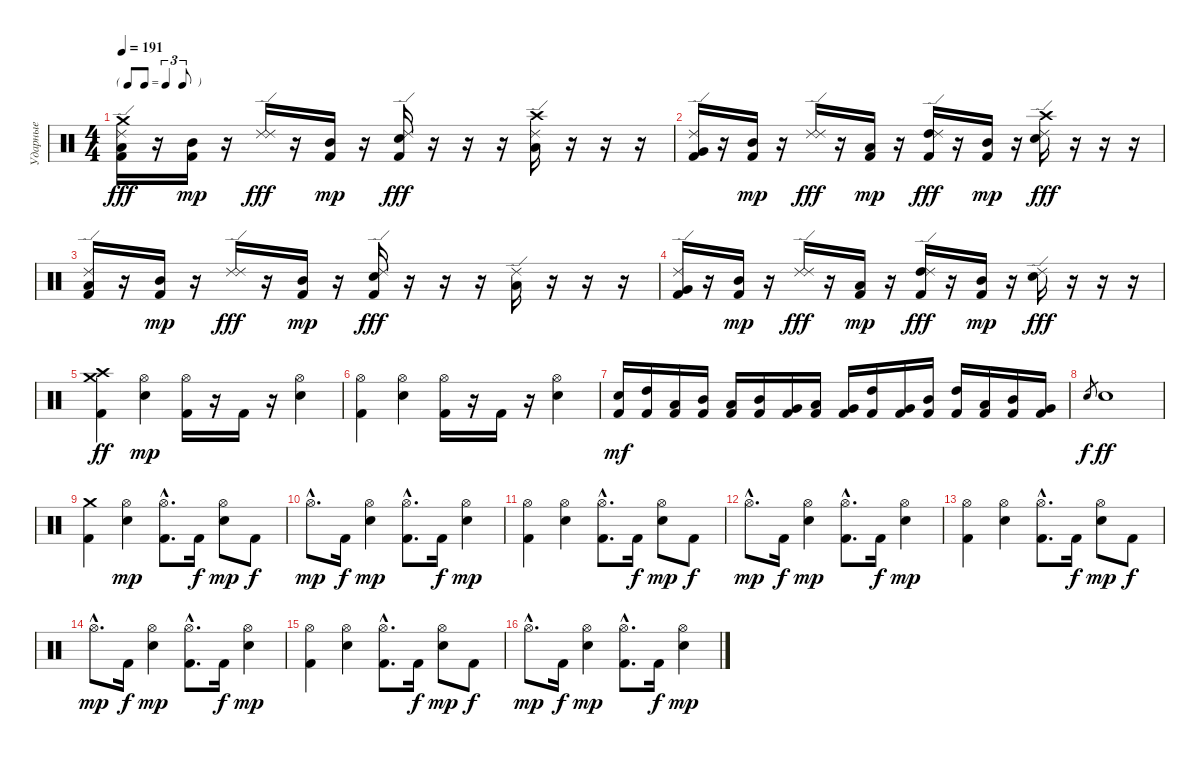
\track ("Ударные" "Ударные") {instrument percussion}
\staff {score}
\articulation defaults
\ts (4 4)
\tf triplet8th
\tempo 191
\clef neutral
\ks c
("Crash medium (hit)" "Low Tom (hit)" "Kick (hit) 2" "Ride (edge) 2").16{dy fff} r.16 ("Mid Tom (hit)" "Kick (hit) 2").16{dy mp} r.16 ("Ride (edge) 2" "Ride (edge) 2").16{dy fff} r.16 ("Mid Tom (hit)" "Kick (hit) 2").16{dy mp} r.16 ("Snare (hit) 2" "Kick (hit) 2" "Ride (edge) 2").16{dy fff} r.16 r.16 r.16 ("Crash high (hit)" "Low Tom (hit)" "Ride (edge) 2").16 r.16 r.16 r.16 |
("Very Low Tom (hit)" "Kick (hit) 2" "Ride (edge) 2").16 r.16 ("Mid Tom (hit)" "Kick (hit) 2").16{dy mp} r.16 ("Ride (edge) 2" "Ride (edge) 2").16{dy fff} r.16 ("Low Tom (hit)" "Kick (hit) 2").16{dy mp} r.16 ("High Tom (hit)" "Kick (hit) 2" "Ride (edge) 2").16{dy fff} r.16 ("Mid Tom (hit)" "Kick (hit) 2").16{dy mp} r.16 ("Crash high (hit)" "Snare (hit) 2" "Ride (edge) 2").16{dy fff} r.16 r.16 r.16 |
("Low Tom (hit)" "Kick (hit) 2" "Ride (edge) 2").16 r.16 ("Mid Tom (hit)" "Kick (hit) 2").16{dy mp} r.16 ("Ride (edge) 2" "Ride (edge) 2").16{dy fff} r.16 ("Mid Tom (hit)" "Kick (hit) 2").16{dy mp} r.16 ("Snare (hit) 2" "Kick (hit) 2" "Ride (edge) 2").16{dy fff} r.16 r.16 r.16 ("Low Tom (hit)" "Ride (edge) 2").16 r.16 r.16 r.16 |
("Very Low Tom (hit)" "Kick (hit) 2" "Ride (edge) 2").16 r.16 ("Mid Tom (hit)" "Kick (hit) 2").16{dy mp} r.16 ("Ride (edge) 2" "Ride (edge) 2").16{dy fff} r.16 ("Low Tom (hit)" "Kick (hit) 2").16{dy mp} r.16 ("High Tom (hit)" "Kick (hit) 2" "Ride (edge) 2").16{dy fff} r.16 ("Mid Tom (hit)" "Kick (hit) 2").16{dy mp} r.16 ("Snare (hit) 2" "Ride (edge) 2").16{dy fff} r.16 r.16 r.16 |
("Crash medium (hit)" "Kick (hit) 2" "Crash high (hit)").4{dy ff} ("Snare (hit) 2" "Hi-Hat (open)").4{dy mp} ("Kick (hit) 2" "Hi-Hat (open)").16 r.16 "Kick (hit) 2".16 r.16 ("Snare (hit) 2" "Hi-Hat (open)").4 |
("Kick (hit) 2" "Hi-Hat (open)").4 ("Snare (hit) 2" "Hi-Hat (open)").4 ("Kick (hit) 2" "Hi-Hat (open)").16 r.16 "Kick (hit) 2".16 r.16 ("Snare (hit) 2" "Hi-Hat (open)").4 |
("Electric Snare (hit)" "Kick (hit) 2").16{dy mf} ("High Tom (hit)" "Kick (hit) 2").16 ("Low Tom (hit)" "Kick (hit) 2").16 ("Mid Tom (hit)" "Kick (hit) 2").16 ("Low Tom (hit)" "Kick (hit) 2").16 ("Mid Tom (hit)" "Kick (hit) 2").16 ("Very Low Tom (hit)" "Kick (hit) 2").16 ("Low Tom (hit)" "Kick (hit) 2").16 ("Very Low Tom (hit)" "Kick (hit) 2").16 ("High Tom (hit)" "Kick (hit) 2").16 ("Very Low Tom (hit)" "Kick (hit) 2").16 ("Mid Tom (hit)" "Kick (hit) 2").16 ("High Tom (hit)" "Kick (hit) 2").16 ("Low Tom (hit)" "Kick (hit) 2").16 ("Mid Tom (hit)" "Kick (hit) 2").16 ("Very Low Tom (hit)" "Kick (hit) 2").16 |
"Electric Snare (hit)".8{gr dy f} "Electric Snare (hit)".1{dy ff} |
("Crash medium (hit)" "Kick (hit) 2").4 ("Snare (hit) 2" "Hi-Hat (open)").4{dy mp} ("Kick (hit) 2"{hac} "Hi-Hat (open)"{hac}).8{d} "Kick (hit) 2".16{dy f} ("Snare (hit) 2" "Hi-Hat (open)").8{dy mp} "Kick (hit) 2".8{dy f} |
"Hi-Hat (open)"{hac}.8{d dy mp} "Kick (hit) 2".16{dy f} ("Snare (hit) 2" "Hi-Hat (open)").4{dy mp} ("Kick (hit) 2"{hac} "Hi-Hat (open)"{hac}).8{d} "Kick (hit) 2".16{dy f} ("Snare (hit) 2" "Hi-Hat (open)").4{dy mp} |
("Kick (hit) 2" "Hi-Hat (open)").4 ("Snare (hit) 2" "Hi-Hat (open)").4 ("Kick (hit) 2"{hac} "Hi-Hat (open)"{hac}).8{d} "Kick (hit) 2".16{dy f} ("Snare (hit) 2" "Hi-Hat (open)").8{dy mp} "Kick (hit) 2".8{dy f} |
"Hi-Hat (open)"{hac}.8{d dy mp} "Kick (hit) 2".16{dy f} ("Snare (hit) 2" "Hi-Hat (open)").4{dy mp} ("Kick (hit) 2"{hac} "Hi-Hat (open)"{hac}).8{d} "Kick (hit) 2".16{dy f} ("Snare (hit) 2" "Hi-Hat (open)").4{dy mp} |
("Kick (hit) 2" "Hi-Hat (open)").4 ("Snare (hit) 2" "Hi-Hat (open)").4 ("Kick (hit) 2"{hac} "Hi-Hat (open)"{hac}).8{d} "Kick (hit) 2".16{dy f} ("Snare (hit) 2" "Hi-Hat (open)").8{dy mp} "Kick (hit) 2".8{dy f} |
"Hi-Hat (open)"{hac}.8{d dy mp} "Kick (hit) 2".16{dy f} ("Snare (hit) 2" "Hi-Hat (open)").4{dy mp} ("Kick (hit) 2"{hac} "Hi-Hat (open)"{hac}).8{d} "Kick (hit) 2".16{dy f} ("Snare (hit) 2" "Hi-Hat (open)").4{dy mp} |
("Kick (hit) 2" "Hi-Hat (open)").4 ("Snare (hit) 2" "Hi-Hat (open)").4 ("Kick (hit) 2"{hac} "Hi-Hat (open)"{hac}).8{d} "Kick (hit) 2".16{dy f} ("Snare (hit) 2" "Hi-Hat (open)").8{dy mp} "Kick (hit) 2".8{dy f} |
"Hi-Hat (open)"{hac}.8{d dy mp} "Kick (hit) 2".16{dy f} ("Snare (hit) 2" "Hi-Hat (open)").4{dy mp} ("Kick (hit) 2"{hac} "Hi-Hat (open)"{hac}).8{d} "Kick (hit) 2".16{dy f} ("Snare (hit) 2" "Hi-Hat (open)").4{dy mp}
